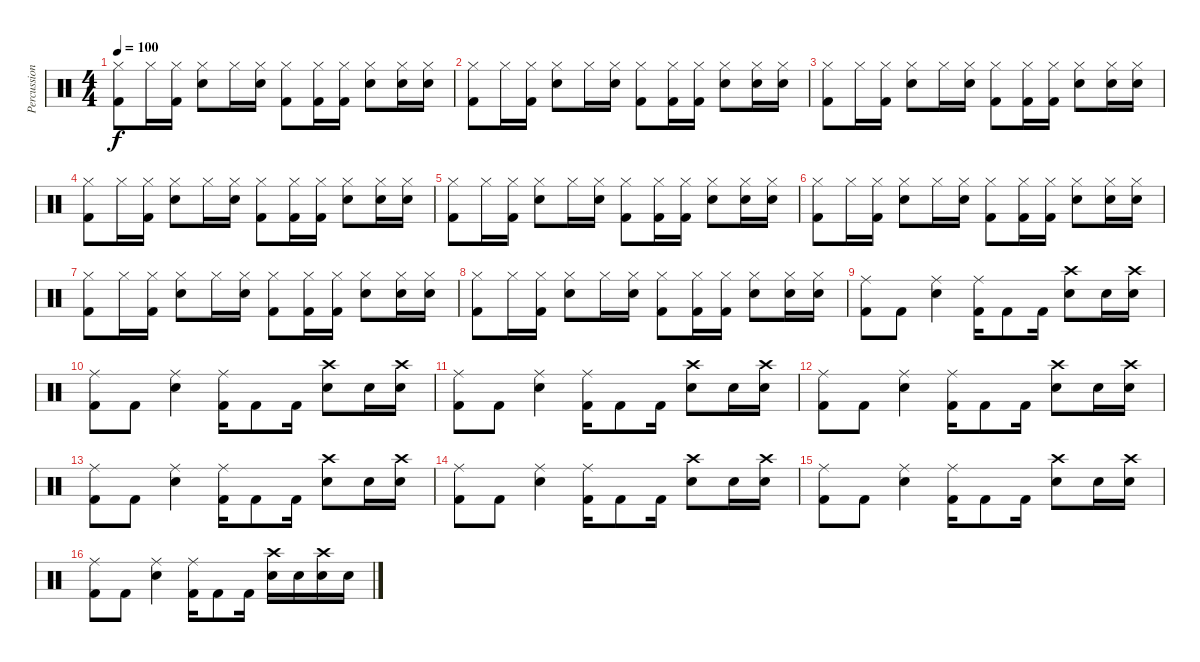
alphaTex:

\track ("Percussion - Drums" "Percussion") {instrument percussion}
\staff {score}
\articulation defaults
\ts (4 4)
\tempo 100
\clef neutral
\ks c
("Hi-Hat (closed)" "Kick (hit) 2").8{dy f} "Hi-Hat (closed)".16 ("Hi-Hat (closed)" "Kick (hit) 2").16 ("Hi-Hat (closed)" "Snare (hit) 2").8 "Hi-Hat (closed)".16 ("Hi-Hat (closed)" "Snare (hit) 2").16 ("Hi-Hat (closed)" "Kick (hit) 2").8 ("Hi-Hat (closed)" "Kick (hit) 2").16 ("Hi-Hat (closed)" "Kick (hit) 2").16 ("Hi-Hat (closed)" "Snare (hit) 2").8 ("Hi-Hat (closed)" "Snare (hit) 2").16 ("Hi-Hat (closed)" "Snare (hit) 2").16 |
("Hi-Hat (closed)" "Kick (hit) 2").8 "Hi-Hat (closed)".16 ("Hi-Hat (closed)" "Kick (hit) 2").16 ("Hi-Hat (closed)" "Snare (hit) 2").8 "Hi-Hat (closed)".16 ("Hi-Hat (closed)" "Snare (hit) 2").16 ("Hi-Hat (closed)" "Kick (hit) 2").8 ("Hi-Hat (closed)" "Kick (hit) 2").16 ("Hi-Hat (closed)" "Kick (hit) 2").16 ("Hi-Hat (closed)" "Snare (hit) 2").8 ("Hi-Hat (closed)" "Snare (hit) 2").16 ("Hi-Hat (closed)" "Snare (hit) 2").16 |
("Hi-Hat (closed)" "Kick (hit) 2").8 "Hi-Hat (closed)".16 ("Hi-Hat (closed)" "Kick (hit) 2").16 ("Hi-Hat (closed)" "Snare (hit) 2").8 "Hi-Hat (closed)".16 ("Hi-Hat (closed)" "Snare (hit) 2").16 ("Hi-Hat (closed)" "Kick (hit) 2").8 ("Hi-Hat (closed)" "Kick (hit) 2").16 ("Hi-Hat (closed)" "Kick (hit) 2").16 ("Hi-Hat (closed)" "Snare (hit) 2").8 ("Hi-Hat (closed)" "Snare (hit) 2").16 ("Hi-Hat (closed)" "Snare (hit) 2").16 |
("Hi-Hat (closed)" "Kick (hit) 2").8 "Hi-Hat (closed)".16 ("Hi-Hat (closed)" "Kick (hit) 2").16 ("Hi-Hat (closed)" "Snare (hit) 2").8 "Hi-Hat (closed)".16 ("Hi-Hat (closed)" "Snare (hit) 2").16 ("Hi-Hat (closed)" "Kick (hit) 2").8 ("Hi-Hat (closed)" "Kick (hit) 2").16 ("Hi-Hat (closed)" "Kick (hit) 2").16 ("Hi-Hat (closed)" "Snare (hit) 2").8 ("Hi-Hat (closed)" "Snare (hit) 2").16 ("Hi-Hat (closed)" "Snare (hit) 2").16 |
("Hi-Hat (closed)" "Kick (hit) 2").8 "Hi-Hat (closed)".16 ("Hi-Hat (closed)" "Kick (hit) 2").16 ("Hi-Hat (closed)" "Snare (hit) 2").8 "Hi-Hat (closed)".16 ("Hi-Hat (closed)" "Snare (hit) 2").16 ("Hi-Hat (closed)" "Kick (hit) 2").8 ("Hi-Hat (closed)" "Kick (hit) 2").16 ("Hi-Hat (closed)" "Kick (hit) 2").16 ("Hi-Hat (closed)" "Snare (hit) 2").8 ("Hi-Hat (closed)" "Snare (hit) 2").16 ("Hi-Hat (closed)" "Snare (hit) 2").16 |
("Hi-Hat (closed)" "Kick (hit) 2").8 "Hi-Hat (closed)".16 ("Hi-Hat (closed)" "Kick (hit) 2").16 ("Hi-Hat (closed)" "Snare (hit) 2").8 "Hi-Hat (closed)".16 ("Hi-Hat (closed)" "Snare (hit) 2").16 ("Hi-Hat (closed)" "Kick (hit) 2").8 ("Hi-Hat (closed)" "Kick (hit) 2").16 ("Hi-Hat (closed)" "Kick (hit) 2").16 ("Hi-Hat (closed)" "Snare (hit) 2").8 ("Hi-Hat (closed)" "Snare (hit) 2").16 ("Hi-Hat (closed)" "Snare (hit) 2").16 |
("Hi-Hat (closed)" "Kick (hit) 2").8 "Hi-Hat (closed)".16 ("Hi-Hat (closed)" "Kick (hit) 2").16 ("Hi-Hat (closed)" "Snare (hit) 2").8 "Hi-Hat (closed)".16 ("Hi-Hat (closed)" "Snare (hit) 2").16 ("Hi-Hat (closed)" "Kick (hit) 2").8 ("Hi-Hat (closed)" "Kick (hit) 2").16 ("Hi-Hat (closed)" "Kick (hit) 2").16 ("Hi-Hat (closed)" "Snare (hit) 2").8 ("Hi-Hat (closed)" "Snare (hit) 2").16 ("Hi-Hat (closed)" "Snare (hit) 2").16 |
("Hi-Hat (closed)" "Kick (hit) 2").8 "Hi-Hat (closed)".16 ("Hi-Hat (closed)" "Kick (hit) 2").16 ("Hi-Hat (closed)" "Snare (hit) 2").8 "Hi-Hat (closed)".16 ("Hi-Hat (closed)" "Snare (hit) 2").16 ("Hi-Hat (closed)" "Kick (hit) 2").8 ("Hi-Hat (closed)" "Kick (hit) 2").16 ("Hi-Hat (closed)" "Kick (hit) 2").16 ("Hi-Hat (closed)" "Snare (hit) 2").8 ("Hi-Hat (closed)" "Snare (hit) 2").16 ("Hi-Hat (closed)" "Snare (hit) 2").16 |
("Ride (middle)" "Kick (hit) 2").8 "Kick (hit) 2".8 ("Ride (middle)" "Snare (hit) 2").4 ("Ride (middle)" "Kick (hit) 2").16 "Kick (hit) 2".8 "Kick (hit) 2".16 ("Crash high (hit)" "Snare (hit) 2").8 "Snare (hit) 2".16 ("Crash high (hit)" "Snare (hit) 2").16 |
("Ride (middle)" "Kick (hit) 2").8 "Kick (hit) 2".8 ("Ride (middle)" "Snare (hit) 2").4 ("Ride (middle)" "Kick (hit) 2").16 "Kick (hit) 2".8 "Kick (hit) 2".16 ("Crash high (hit)" "Snare (hit) 2").8 "Snare (hit) 2".16 ("Crash high (hit)" "Snare (hit) 2").16 |
("Ride (middle)" "Kick (hit) 2").8 "Kick (hit) 2".8 ("Ride (middle)" "Snare (hit) 2").4 ("Ride (middle)" "Kick (hit) 2").16 "Kick (hit) 2".8 "Kick (hit) 2".16 ("Crash high (hit)" "Snare (hit) 2").8 "Snare (hit) 2".16 ("Crash high (hit)" "Snare (hit) 2").16 |
("Ride (middle)" "Kick (hit) 2").8 "Kick (hit) 2".8 ("Ride (middle)" "Snare (hit) 2").4 ("Ride (middle)" "Kick (hit) 2").16 "Kick (hit) 2".8 "Kick (hit) 2".16 ("Crash high (hit)" "Snare (hit) 2").8 "Snare (hit) 2".16 ("Crash high (hit)" "Snare (hit) 2").16 |
("Ride (middle)" "Kick (hit) 2").8 "Kick (hit) 2".8 ("Ride (middle)" "Snare (hit) 2").4 ("Ride (middle)" "Kick (hit) 2").16 "Kick (hit) 2".8 "Kick (hit) 2".16 ("Crash high (hit)" "Snare (hit) 2").8 "Snare (hit) 2".16 ("Crash high (hit)" "Snare (hit) 2").16 |
("Ride (middle)" "Kick (hit) 2").8 "Kick (hit) 2".8 ("Ride (middle)" "Snare (hit) 2").4 ("Ride (middle)" "Kick (hit) 2").16 "Kick (hit) 2".8 "Kick (hit) 2".16 ("Crash high (hit)" "Snare (hit) 2").8 "Snare (hit) 2".16 ("Crash high (hit)" "Snare (hit) 2").16 |
("Ride (middle)" "Kick (hit) 2").8 "Kick (hit) 2".8 ("Ride (middle)" "Snare (hit) 2").4 ("Ride (middle)" "Kick (hit) 2").16 "Kick (hit) 2".8 "Kick (hit) 2".16 ("Crash high (hit)" "Snare (hit) 2").8 "Snare (hit) 2".16 ("Crash high (hit)" "Snare (hit) 2").16 |
("Ride (middle)" "Kick (hit) 2").8 "Kick (hit) 2".8 ("Ride (middle)" "Snare (hit) 2").4 ("Ride (middle)" "Kick (hit) 2").16 "Kick (hit) 2".8 "Kick (hit) 2".16 ("Crash high (hit)" "Snare (hit) 2").16 "Snare (hit) 2".16 ("Crash high (hit)" "Snare (hit) 2").16 "Snare (hit) 2".16
